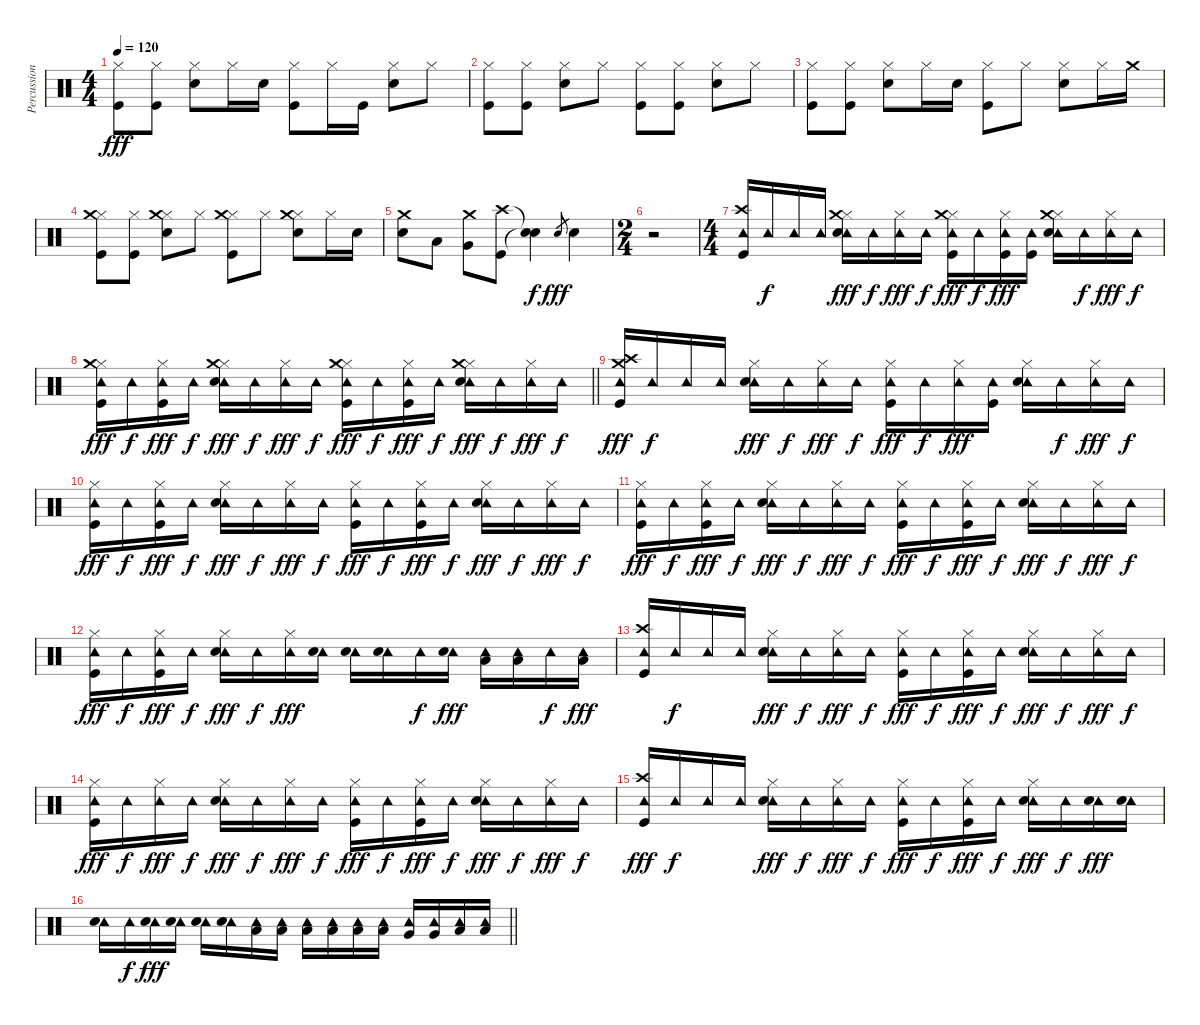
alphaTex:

\track ("Percussioni" "Percussion") {instrument percussion}
\staff {score}
\articulation defaults
\ts (4 4)
\tempo 120
\clef neutral
\ks c
("Hi-Hat (closed)" "Kick (hit)").8{dy fff} ("Hi-Hat (closed)" "Kick (hit)").8 ("Hi-Hat (closed)" "Snare (hit) 2").8 "Hi-Hat (closed)".16 "Snare (hit) 2".16 ("Hi-Hat (closed)" "Kick (hit)").8 "Hi-Hat (closed)".16 "Kick (hit)".16 ("Hi-Hat (closed)" "Snare (hit) 2").8 "Hi-Hat (closed)".8 |
("Hi-Hat (closed)" "Kick (hit)").8 ("Hi-Hat (closed)" "Kick (hit)").8 ("Hi-Hat (closed)" "Snare (hit) 2").8 "Hi-Hat (closed)".8 ("Hi-Hat (closed)" "Kick (hit)").8 ("Hi-Hat (closed)" "Kick (hit)").8 ("Hi-Hat (closed)" "Snare (hit) 2").8 "Hi-Hat (closed)".8 |
("Hi-Hat (closed)" "Kick (hit)").8 ("Hi-Hat (closed)" "Kick (hit)").8 ("Hi-Hat (closed)" "Snare (hit) 2").8 "Hi-Hat (closed)".16 "Snare (hit) 2".16 ("Hi-Hat (closed)" "Kick (hit)").8 "Hi-Hat (closed)".8 ("Hi-Hat (closed)" "Snare (hit) 2").8 "Hi-Hat (closed)".16 "Crash medium (hit)".16 |
("Hi-Hat (closed)" "Crash medium (hit)" "Kick (hit)").8 ("Hi-Hat (closed)" "Kick (hit)").8 ("Hi-Hat (closed)" "Crash medium (hit)" "Snare (hit) 2").8 "Hi-Hat (closed)".8 ("Hi-Hat (closed)" "Crash medium (hit)" "Kick (hit)").8 "Hi-Hat (closed)".8 ("Hi-Hat (closed)" "Crash medium (hit)" "Snare (hit) 2").8 "Hi-Hat (closed)".16 "Snare (hit) 2".16 |
("Crash medium (hit)" "Snare (hit) 2").8 "Low Tom (hit)".8 ("Crash medium (hit)" "Very Low Tom (hit)").8 ("Crash high (hit)" "Kick (hit)").8 ("Snare (hit)"{t} "Snare (hit)"{t}).4{dy f} "Snare (hit) 2".8{gr dy fff} "Snare (hit) 2".4 |
\ts (2 4)
r.2 |
\ts (4 4)
("Crash high (hit)" "Tambourine (hit)" "Kick (hit)").16 "Tambourine (hit)".16{dy f} "Tambourine (hit)".16 "Tambourine (hit)".16 ("Hi-Hat (closed)" "Tambourine (hit)" "Crash medium (hit)" "Snare (hit) 2").16{dy fff} "Tambourine (hit)".16{dy f} ("Hi-Hat (closed)" "Tambourine (hit)").16{dy fff} "Tambourine (hit)".16{dy f} ("Hi-Hat (closed)" "Tambourine (hit)" "Crash medium (hit)" "Kick (hit)").16{dy fff} "Tambourine (hit)".16{dy f} ("Hi-Hat (closed)" "Tambourine (hit)" "Kick (hit)").16{dy fff} ("Tambourine (hit)" "Kick (hit)").16 ("Hi-Hat (closed)" "Tambourine (hit)" "Crash medium (hit)" "Snare (hit) 2").16 "Tambourine (hit)".16{dy f} ("Hi-Hat (closed)" "Tambourine (hit)").16{dy fff} "Tambourine (hit)".16{dy f} |
\barLineRight lightlight
("Hi-Hat (closed)" "Tambourine (hit)" "Crash medium (hit)" "Kick (hit)").16{dy fff} "Tambourine (hit)".16{dy f} ("Hi-Hat (closed)" "Tambourine (hit)" "Kick (hit)").16{dy fff} "Tambourine (hit)".16{dy f} ("Hi-Hat (closed)" "Tambourine (hit)" "Crash medium (hit)" "Snare (hit) 2").16{dy fff} "Tambourine (hit)".16{dy f} ("Hi-Hat (closed)" "Tambourine (hit)").16{dy fff} "Tambourine (hit)".16{dy f} ("Hi-Hat (closed)" "Tambourine (hit)" "Crash medium (hit)" "Kick (hit)").16{dy fff} "Tambourine (hit)".16{dy f} ("Hi-Hat (closed)" "Tambourine (hit)" "Kick (hit)").16{dy fff} "Tambourine (hit)".16{dy f} ("Hi-Hat (closed)" "Tambourine (hit)" "Crash medium (hit)" "Snare (hit) 2").16{dy fff} "Tambourine (hit)".16{dy f} ("Hi-Hat (closed)" "Tambourine (hit)").16{dy fff} "Tambourine (hit)".16{dy f} |
("Crash high (hit)" "Tambourine (hit)" "Crash medium (hit)" "Kick (hit)").16{dy fff} "Tambourine (hit)".16{dy f} "Tambourine (hit)".16 "Tambourine (hit)".16 ("Hi-Hat (closed)" "Tambourine (hit)" "Snare (hit) 2").16{dy fff} "Tambourine (hit)".16{dy f} ("Hi-Hat (closed)" "Tambourine (hit)").16{dy fff} "Tambourine (hit)".16{dy f} ("Hi-Hat (closed)" "Tambourine (hit)" "Kick (hit)").16{dy fff} "Tambourine (hit)".16{dy f} ("Hi-Hat (closed)" "Tambourine (hit)").16{dy fff} ("Tambourine (hit)" "Kick (hit)").16 ("Hi-Hat (closed)" "Tambourine (hit)" "Snare (hit) 2").16 "Tambourine (hit)".16{dy f} ("Hi-Hat (closed)" "Tambourine (hit)").16{dy fff} "Tambourine (hit)".16{dy f} |
("Hi-Hat (closed)" "Tambourine (hit)" "Kick (hit)").16{dy fff} "Tambourine (hit)".16{dy f} ("Hi-Hat (closed)" "Tambourine (hit)" "Kick (hit)").16{dy fff} "Tambourine (hit)".16{dy f} ("Hi-Hat (closed)" "Tambourine (hit)" "Snare (hit) 2").16{dy fff} "Tambourine (hit)".16{dy f} ("Hi-Hat (closed)" "Tambourine (hit)").16{dy fff} "Tambourine (hit)".16{dy f} ("Hi-Hat (closed)" "Tambourine (hit)" "Kick (hit)").16{dy fff} "Tambourine (hit)".16{dy f} ("Hi-Hat (closed)" "Tambourine (hit)" "Kick (hit)").16{dy fff} "Tambourine (hit)".16{dy f} ("Hi-Hat (closed)" "Tambourine (hit)" "Snare (hit) 2").16{dy fff} "Tambourine (hit)".16{dy f} ("Hi-Hat (closed)" "Tambourine (hit)").16{dy fff} "Tambourine (hit)".16{dy f} |
("Hi-Hat (closed)" "Tambourine (hit)" "Kick (hit)").16{dy fff} "Tambourine (hit)".16{dy f} ("Hi-Hat (closed)" "Tambourine (hit)" "Kick (hit)").16{dy fff} "Tambourine (hit)".16{dy f} ("Hi-Hat (closed)" "Tambourine (hit)" "Snare (hit) 2").16{dy fff} "Tambourine (hit)".16{dy f} ("Hi-Hat (closed)" "Tambourine (hit)").16{dy fff} "Tambourine (hit)".16{dy f} ("Hi-Hat (closed)" "Tambourine (hit)" "Kick (hit)").16{dy fff} "Tambourine (hit)".16{dy f} ("Hi-Hat (closed)" "Tambourine (hit)" "Kick (hit)").16{dy fff} "Tambourine (hit)".16{dy f} ("Hi-Hat (closed)" "Tambourine (hit)" "Snare (hit) 2").16{dy fff} "Tambourine (hit)".16{dy f} ("Hi-Hat (closed)" "Tambourine (hit)").16{dy fff} "Tambourine (hit)".16{dy f} |
("Hi-Hat (closed)" "Tambourine (hit)" "Kick (hit)").16{dy fff} "Tambourine (hit)".16{dy f} ("Hi-Hat (closed)" "Tambourine (hit)" "Kick (hit)").16{dy fff} "Tambourine (hit)".16{dy f} ("Hi-Hat (closed)" "Tambourine (hit)" "Snare (hit) 2").16{dy fff} "Tambourine (hit)".16{dy f} ("Hi-Hat (closed)" "Tambourine (hit)").16{dy fff} ("Tambourine (hit)" "Snare (hit) 2").16 ("Tambourine (hit)" "Snare (hit) 2").16 ("Tambourine (hit)" "Snare (hit) 2").16 "Tambourine (hit)".16{dy f} ("Tambourine (hit)" "Snare (hit) 2").16{dy fff} ("Tambourine (hit)" "Low Tom (hit)").16 ("Tambourine (hit)" "Low Tom (hit)").16 "Tambourine (hit)".16{dy f} ("Tambourine (hit)" "Low Tom (hit)").16{dy fff} |
("Crash high (hit)" "Tambourine (hit)" "Kick (hit)").16 "Tambourine (hit)".16{dy f} "Tambourine (hit)".16 "Tambourine (hit)".16 ("Hi-Hat (closed)" "Tambourine (hit)" "Snare (hit) 2").16{dy fff} "Tambourine (hit)".16{dy f} ("Hi-Hat (closed)" "Tambourine (hit)").16{dy fff} "Tambourine (hit)".16{dy f} ("Hi-Hat (closed)" "Tambourine (hit)" "Kick (hit)").16{dy fff} "Tambourine (hit)".16{dy f} ("Hi-Hat (closed)" "Tambourine (hit)" "Kick (hit)").16{dy fff} "Tambourine (hit)".16{dy f} ("Hi-Hat (closed)" "Tambourine (hit)" "Snare (hit) 2").16{dy fff} "Tambourine (hit)".16{dy f} ("Hi-Hat (closed)" "Tambourine (hit)").16{dy fff} "Tambourine (hit)".16{dy f} |
("Hi-Hat (closed)" "Tambourine (hit)" "Kick (hit)").16{dy fff} "Tambourine (hit)".16{dy f} ("Hi-Hat (closed)" "Tambourine (hit)").16{dy fff} "Tambourine (hit)".16{dy f} ("Hi-Hat (closed)" "Tambourine (hit)" "Snare (hit) 2").16{dy fff} "Tambourine (hit)".16{dy f} ("Hi-Hat (closed)" "Tambourine (hit)").16{dy fff} "Tambourine (hit)".16{dy f} ("Hi-Hat (closed)" "Tambourine (hit)" "Kick (hit)").16{dy fff} "Tambourine (hit)".16{dy f} ("Hi-Hat (closed)" "Tambourine (hit)" "Kick (hit)").16{dy fff} "Tambourine (hit)".16{dy f} ("Hi-Hat (closed)" "Tambourine (hit)" "Snare (hit) 2").16{dy fff} "Tambourine (hit)".16{dy f} ("Hi-Hat (closed)" "Tambourine (hit)").16{dy fff} "Tambourine (hit)".16{dy f} |
("Crash high (hit)" "Tambourine (hit)" "Kick (hit)").16{dy fff} "Tambourine (hit)".16{dy f} "Tambourine (hit)".16 "Tambourine (hit)".16 ("Hi-Hat (closed)" "Tambourine (hit)" "Snare (hit) 2").16{dy fff} "Tambourine (hit)".16{dy f} ("Hi-Hat (closed)" "Tambourine (hit)").16{dy fff} "Tambourine (hit)".16{dy f} ("Hi-Hat (closed)" "Tambourine (hit)" "Kick (hit)").16{dy fff} "Tambourine (hit)".16{dy f} ("Hi-Hat (closed)" "Tambourine (hit)" "Kick (hit)").16{dy fff} "Tambourine (hit)".16{dy f} ("Hi-Hat (closed)" "Tambourine (hit)" "Snare (hit) 2").16{dy fff} "Tambourine (hit)".16{dy f} ("Tambourine (hit)" "Snare (hit) 2").16{dy fff} ("Tambourine (hit)" "Snare (hit) 2").16 |
\barLineRight lightlight
("Tambourine (hit)" "Snare (hit) 2").16 "Tambourine (hit)".16{dy f} ("Tambourine (hit)" "Snare (hit) 2").16{dy fff} ("Tambourine (hit)" "Snare (hit) 2").16 ("Tambourine (hit)" "Snare (hit) 2").16 ("Tambourine (hit)" "Snare (hit) 2").16 ("Tambourine (hit)" "Low Tom (hit)").16 ("Tambourine (hit)" "Low Tom (hit)").16 ("Tambourine (hit)" "Low Tom (hit)").16 ("Tambourine (hit)" "Low Tom (hit)").16 ("Tambourine (hit)" "Low Tom (hit)").16 ("Tambourine (hit)" "Low Tom (hit)").16 ("Tambourine (hit)" "Very Low Tom (hit)").16 ("Tambourine (hit)" "Very Low Tom (hit)").16 ("Tambourine (hit)" "Low Floor Tom (hit)").16 ("Tambourine (hit)" "Low Floor Tom (hit)").16
